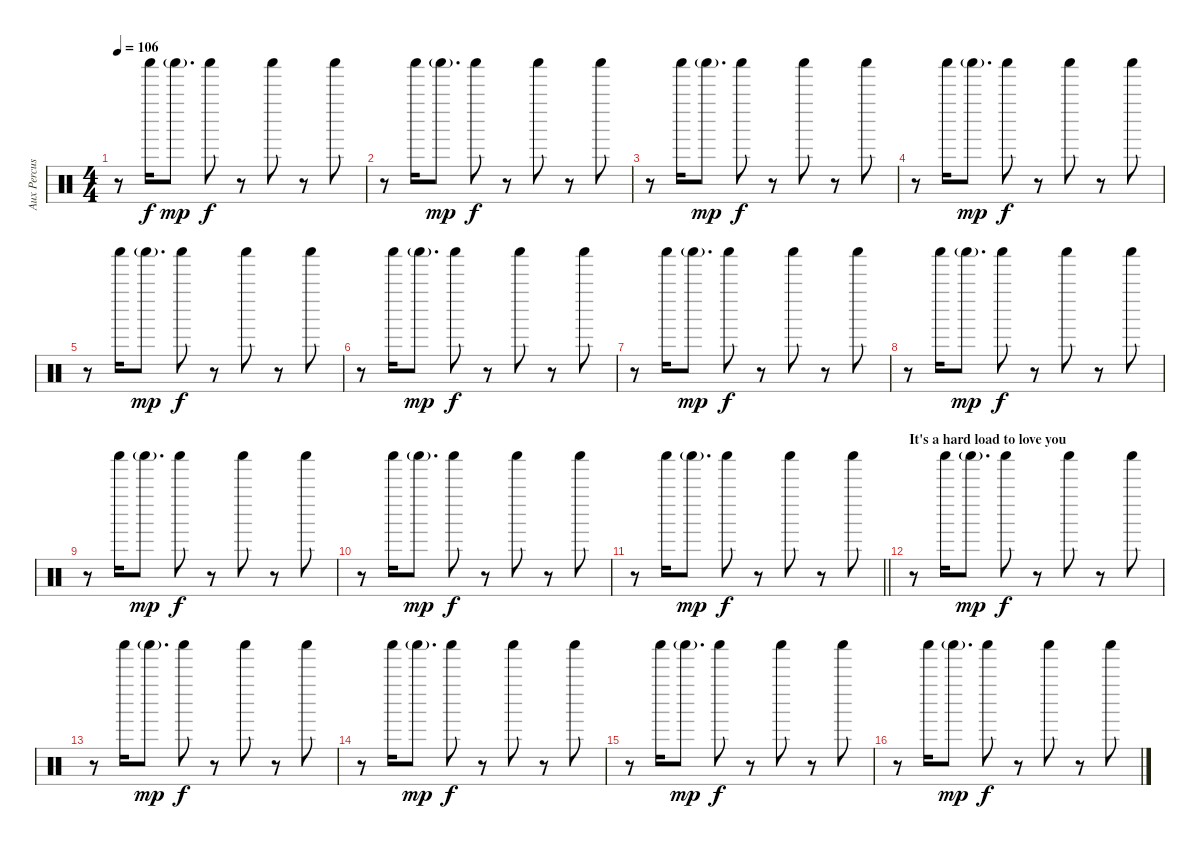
\track ("Aux Percussion" "Aux Percus") {instrument percussion}
\staff {score}
\articulation defaults
\ts (4 4)
\tempo 106
\clef neutral
\ks c
r.8{dy f} "Shaker (hit)".16 "Shaker (hit)"{g}.8{d dy mp} "Shaker (hit)".8{dy f} r.8 "Shaker (hit)".8 r.8 "Shaker (hit)".8 |
r.8 "Shaker (hit)".16 "Shaker (hit)"{g}.8{d dy mp} "Shaker (hit)".8{dy f} r.8 "Shaker (hit)".8 r.8 "Shaker (hit)".8 |
r.8 "Shaker (hit)".16 "Shaker (hit)"{g}.8{d dy mp} "Shaker (hit)".8{dy f} r.8 "Shaker (hit)".8 r.8 "Shaker (hit)".8 |
r.8 "Shaker (hit)".16 "Shaker (hit)"{g}.8{d dy mp} "Shaker (hit)".8{dy f} r.8 "Shaker (hit)".8 r.8 "Shaker (hit)".8 |
r.8 "Shaker (hit)".16 "Shaker (hit)"{g}.8{d dy mp} "Shaker (hit)".8{dy f} r.8 "Shaker (hit)".8 r.8 "Shaker (hit)".8 |
r.8 "Shaker (hit)".16 "Shaker (hit)"{g}.8{d dy mp} "Shaker (hit)".8{dy f} r.8 "Shaker (hit)".8 r.8 "Shaker (hit)".8 |
r.8 "Shaker (hit)".16 "Shaker (hit)"{g}.8{d dy mp} "Shaker (hit)".8{dy f} r.8 "Shaker (hit)".8 r.8 "Shaker (hit)".8 |
r.8 "Shaker (hit)".16 "Shaker (hit)"{g}.8{d dy mp} "Shaker (hit)".8{dy f} r.8 "Shaker (hit)".8 r.8 "Shaker (hit)".8 |
r.8 "Shaker (hit)".16 "Shaker (hit)"{g}.8{d dy mp} "Shaker (hit)".8{dy f} r.8 "Shaker (hit)".8 r.8 "Shaker (hit)".8 |
r.8 "Shaker (hit)".16 "Shaker (hit)"{g}.8{d dy mp} "Shaker (hit)".8{dy f} r.8 "Shaker (hit)".8 r.8 "Shaker (hit)".8 |
\barLineRight lightlight
r.8 "Shaker (hit)".16 "Shaker (hit)"{g}.8{d dy mp} "Shaker (hit)".8{dy f} r.8 "Shaker (hit)".8 r.8 "Shaker (hit)".8 |
\section ("" "It's a hard load to love you")
r.8 "Shaker (hit)".16 "Shaker (hit)"{g}.8{d dy mp} "Shaker (hit)".8{dy f} r.8 "Shaker (hit)".8 r.8 "Shaker (hit)".8 |
r.8 "Shaker (hit)".16 "Shaker (hit)"{g}.8{d dy mp} "Shaker (hit)".8{dy f} r.8 "Shaker (hit)".8 r.8 "Shaker (hit)".8 |
r.8 "Shaker (hit)".16 "Shaker (hit)"{g}.8{d dy mp} "Shaker (hit)".8{dy f} r.8 "Shaker (hit)".8 r.8 "Shaker (hit)".8 |
r.8 "Shaker (hit)".16 "Shaker (hit)"{g}.8{d dy mp} "Shaker (hit)".8{dy f} r.8 "Shaker (hit)".8 r.8 "Shaker (hit)".8 |
r.8 "Shaker (hit)".16 "Shaker (hit)"{g}.8{d dy mp} "Shaker (hit)".8{dy f} r.8 "Shaker (hit)".8 r.8 "Shaker (hit)".8
